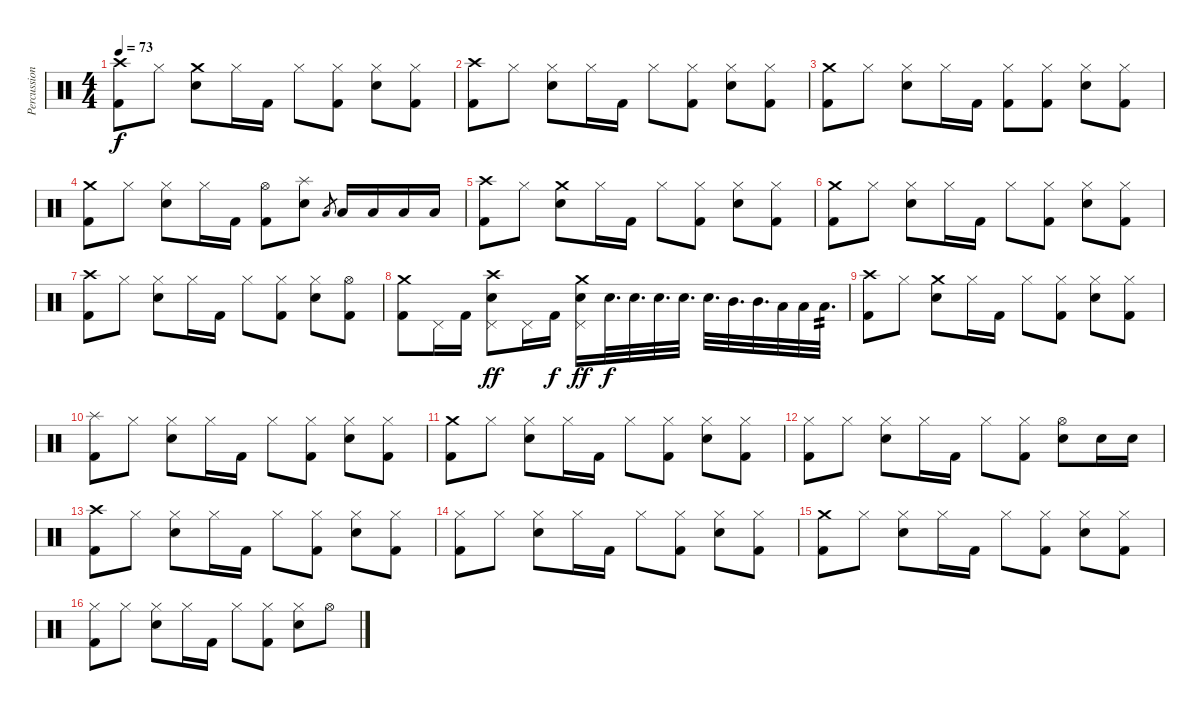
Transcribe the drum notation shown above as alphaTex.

\track ("Percussion" "Percussion") {instrument percussion}
\staff {score}
\articulation defaults
\ts (4 4)
\tempo 73
\clef neutral
\ks c
("Crash high (hit)" "Kick (hit) 2").8{dy f} "Hi-Hat (closed)".8 ("Crash medium (hit)" "Electric Snare (hit)").8 "Hi-Hat (closed)".16 "Kick (hit) 2".16 "Hi-Hat (closed)".8 ("Hi-Hat (closed)" "Kick (hit) 2").8 ("Hi-Hat (closed)" "Electric Snare (hit)").8 ("Hi-Hat (closed)" "Kick (hit) 2").8 |
("Crash high (hit)" "Kick (hit) 2").8 "Hi-Hat (closed)".8 ("Hi-Hat (closed)" "Electric Snare (hit)").8 "Hi-Hat (closed)".16 "Kick (hit) 2".16 "Hi-Hat (closed)".8 ("Hi-Hat (closed)" "Kick (hit) 2").8 ("Hi-Hat (closed)" "Electric Snare (hit)").8 ("Hi-Hat (closed)" "Kick (hit) 2").8 |
("Crash medium (hit)" "Kick (hit) 2").8 "Hi-Hat (closed)".8 ("Hi-Hat (closed)" "Electric Snare (hit)").8 "Hi-Hat (closed)".16 "Kick (hit) 2".16 ("Hi-Hat (closed)" "Kick (hit) 2").8 ("Hi-Hat (closed)" "Kick (hit) 2").8 ("Hi-Hat (closed)" "Electric Snare (hit)").8 ("Hi-Hat (closed)" "Kick (hit) 2").8 |
("Crash medium (hit)" "Kick (hit) 2").8 "Hi-Hat (closed)".8 ("Hi-Hat (closed)" "Electric Snare (hit)").8 "Hi-Hat (closed)".16 "Kick (hit) 2".16 ("Hi-Hat (open)" "Kick (hit) 2").8 ("Splash (hit)" "Electric Snare (hit)").8 "Low Tom (hit)".8{gr} "Low Tom (hit)".16 "Low Floor Tom (hit)".16 "Low Floor Tom (hit)".16 "Low Floor Tom (hit)".16 |
("Crash high (hit)" "Kick (hit) 2").8 "Hi-Hat (closed)".8 ("Crash medium (hit)" "Electric Snare (hit)").8 "Hi-Hat (closed)".16 "Kick (hit) 2".16 "Hi-Hat (closed)".8 ("Hi-Hat (closed)" "Kick (hit) 2").8 ("Hi-Hat (closed)" "Electric Snare (hit)").8 ("Hi-Hat (closed)" "Kick (hit) 2").8 |
("Crash medium (hit)" "Kick (hit) 2").8 "Hi-Hat (closed)".8 ("Hi-Hat (closed)" "Electric Snare (hit)").8 "Hi-Hat (closed)".16 "Kick (hit) 2".16 "Hi-Hat (closed)".8 ("Hi-Hat (closed)" "Kick (hit) 2").8 ("Hi-Hat (closed)" "Electric Snare (hit)").8 ("Hi-Hat (closed)" "Kick (hit) 2").8 |
("Crash high (hit)" "Kick (hit) 2").8 "Hi-Hat (closed)".8 ("Hi-Hat (closed)" "Electric Snare (hit)").8 "Hi-Hat (closed)".16 "Kick (hit) 2".16 "Hi-Hat (closed)".8 ("Hi-Hat (closed)" "Kick (hit) 2").8 ("Hi-Hat (closed)" "Electric Snare (hit)").8 ("Hi-Hat (open)" "Kick (hit) 2").8 |
("Crash medium (hit)" "Kick (hit) 2").8 "Pedal Hi-Hat (hit)".16 "Kick (hit) 2".16 ("Crash high (hit)" "Pedal Hi-Hat (hit)" "Electric Snare (hit)").8{dy ff} "Pedal Hi-Hat (hit)".16 "Kick (hit) 2".16{dy f} ("Crash medium (hit)" "Pedal Hi-Hat (hit)" "Electric Snare (hit)").16{dy ff} "Electric Snare (hit)".32{d dy f} "Electric Snare (hit)".32{d} "Electric Snare (hit)".32{d} "Electric Snare (hit)".32{d} "Electric Snare (hit)".32{d} "Mid Tom (hit)".32{d} "Mid Tom (hit)".32{d} "Low Tom (hit)".32 "Low Tom (hit)".32 "Low Floor Tom (hit)".32{d tp 2} |
("Crash high (hit)" "Kick (hit) 2").8 "Hi-Hat (closed)".8 ("Crash medium (hit)" "Electric Snare (hit)").8 "Hi-Hat (closed)".16 "Kick (hit) 2".16 "Hi-Hat (closed)".8 ("Hi-Hat (closed)" "Kick (hit) 2").8 ("Hi-Hat (closed)" "Electric Snare (hit)").8 ("Hi-Hat (closed)" "Kick (hit) 2").8 |
("Splash (hit)" "Kick (hit) 2").8 "Hi-Hat (closed)".8 ("Hi-Hat (closed)" "Electric Snare (hit)").8 "Hi-Hat (closed)".16 "Kick (hit) 2".16 "Hi-Hat (closed)".8 ("Hi-Hat (closed)" "Kick (hit) 2").8 ("Hi-Hat (closed)" "Electric Snare (hit)").8 ("Hi-Hat (closed)" "Kick (hit) 2").8 |
("Crash medium (hit)" "Kick (hit) 2").8 "Hi-Hat (closed)".8 ("Hi-Hat (closed)" "Electric Snare (hit)").8 "Hi-Hat (closed)".16 "Kick (hit) 2".16 "Hi-Hat (closed)".8 ("Hi-Hat (closed)" "Kick (hit) 2").8 ("Hi-Hat (closed)" "Electric Snare (hit)").8 ("Hi-Hat (closed)" "Kick (hit) 2").8 |
("Hi-Hat (closed)" "Kick (hit) 2").8 "Hi-Hat (closed)".8 ("Hi-Hat (closed)" "Electric Snare (hit)").8 "Hi-Hat (closed)".16 "Kick (hit) 2".16 "Hi-Hat (closed)".8 ("Hi-Hat (closed)" "Kick (hit) 2").8 ("Hi-Hat (open)" "Electric Snare (hit)").8 "Electric Snare (hit)".16 "Electric Snare (hit)".16 |
("Crash high (hit)" "Kick (hit) 2").8 "Hi-Hat (closed)".8 ("Hi-Hat (closed)" "Electric Snare (hit)").8 "Hi-Hat (closed)".16 "Kick (hit) 2".16 "Hi-Hat (closed)".8 ("Hi-Hat (closed)" "Kick (hit) 2").8 ("Hi-Hat (closed)" "Electric Snare (hit)").8 ("Hi-Hat (closed)" "Kick (hit) 2").8 |
("Hi-Hat (closed)" "Kick (hit) 2").8 "Hi-Hat (closed)".8 ("Hi-Hat (closed)" "Electric Snare (hit)").8 "Hi-Hat (closed)".16 "Kick (hit) 2".16 "Hi-Hat (closed)".8 ("Hi-Hat (closed)" "Kick (hit) 2").8 ("Hi-Hat (closed)" "Electric Snare (hit)").8 ("Hi-Hat (closed)" "Kick (hit) 2").8 |
("Crash medium (hit)" "Kick (hit) 2").8 "Hi-Hat (closed)".8 ("Hi-Hat (closed)" "Electric Snare (hit)").8 "Hi-Hat (closed)".16 "Kick (hit) 2".16 "Hi-Hat (closed)".8 ("Hi-Hat (closed)" "Kick (hit) 2").8 ("Hi-Hat (closed)" "Electric Snare (hit)").8 ("Hi-Hat (closed)" "Kick (hit) 2").8 |
("Hi-Hat (closed)" "Kick (hit) 2").8 "Hi-Hat (closed)".8 ("Hi-Hat (closed)" "Electric Snare (hit)").8 "Hi-Hat (closed)".16 "Kick (hit) 2".16 "Hi-Hat (closed)".8 ("Hi-Hat (closed)" "Kick (hit) 2").8 ("Hi-Hat (closed)" "Electric Snare (hit)").8 "Hi-Hat (open)".8
